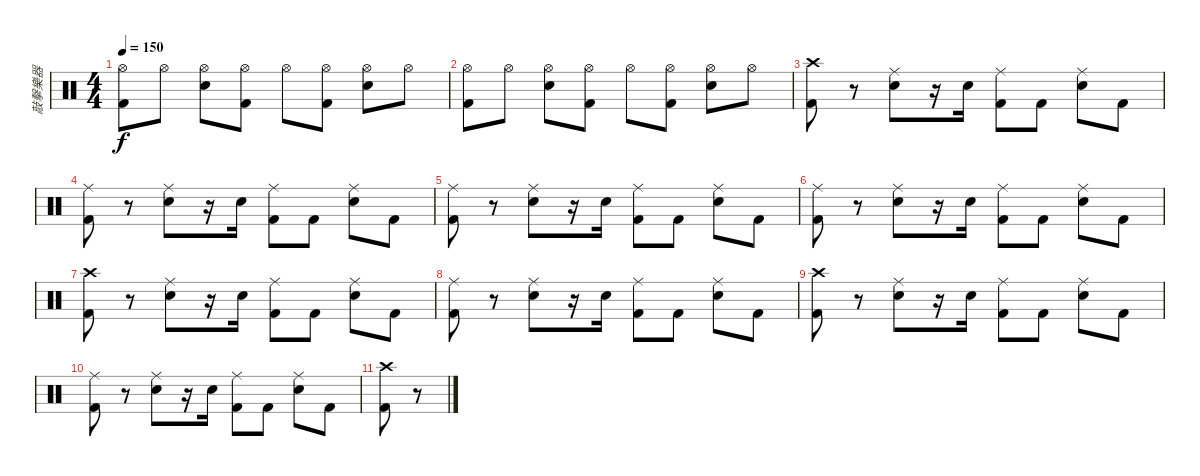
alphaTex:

\track ("敲擊樂器" "敲擊樂器") {instrument percussion}
\staff {score}
\articulation defaults
\ts (4 4)
\tempo 150
\clef neutral
\ks c
("Hi-Hat (open)" "Kick (hit) 2").8{dy f} "Hi-Hat (open)".8 ("Hi-Hat (open)" "Electric Snare (hit)").8 ("Hi-Hat (open)" "Kick (hit) 2").8 "Hi-Hat (open)".8 ("Hi-Hat (open)" "Kick (hit) 2").8 ("Hi-Hat (open)" "Electric Snare (hit)").8 "Hi-Hat (open)".8 |
("Hi-Hat (open)" "Kick (hit) 2").8 "Hi-Hat (open)".8 ("Hi-Hat (open)" "Electric Snare (hit)").8 ("Hi-Hat (open)" "Kick (hit) 2").8 "Hi-Hat (open)".8 ("Hi-Hat (open)" "Kick (hit) 2").8 ("Hi-Hat (open)" "Electric Snare (hit)").8 "Hi-Hat (open)".8 |
("Crash high (hit)" "Kick (hit) 2").8 r.8 ("Ride (middle)" "Electric Snare (hit)").8 r.16 "Electric Snare (hit)".16 ("Ride (middle)" "Kick (hit) 2").8 "Kick (hit) 2".8 ("Ride (middle)" "Electric Snare (hit)").8 "Kick (hit) 2".8 |
("Ride (middle)" "Kick (hit) 2").8 r.8 ("Ride (middle)" "Electric Snare (hit)").8 r.16 "Electric Snare (hit)".16 ("Ride (middle)" "Kick (hit) 2").8 "Kick (hit) 2".8 ("Ride (middle)" "Electric Snare (hit)").8 "Kick (hit) 2".8 |
("Ride (middle)" "Kick (hit) 2").8 r.8 ("Ride (middle)" "Electric Snare (hit)").8 r.16 "Electric Snare (hit)".16 ("Ride (middle)" "Kick (hit) 2").8 "Kick (hit) 2".8 ("Ride (middle)" "Electric Snare (hit)").8 "Kick (hit) 2".8 |
("Ride (middle)" "Kick (hit) 2").8 r.8 ("Ride (middle)" "Electric Snare (hit)").8 r.16 "Electric Snare (hit)".16 ("Ride (middle)" "Kick (hit) 2").8 "Kick (hit) 2".8 ("Ride (middle)" "Electric Snare (hit)").8 "Kick (hit) 2".8 |
("Crash high (hit)" "Kick (hit) 2").8 r.8 ("Ride (middle)" "Electric Snare (hit)").8 r.16 "Electric Snare (hit)".16 ("Ride (middle)" "Kick (hit) 2").8 "Kick (hit) 2".8 ("Ride (middle)" "Electric Snare (hit)").8 "Kick (hit) 2".8 |
("Ride (middle)" "Kick (hit) 2").8 r.8 ("Ride (middle)" "Electric Snare (hit)").8 r.16 "Electric Snare (hit)".16 ("Ride (middle)" "Kick (hit) 2").8 "Kick (hit) 2".8 ("Ride (middle)" "Electric Snare (hit)").8 "Kick (hit) 2".8 |
("Crash high (hit)" "Kick (hit) 2").8 r.8 ("Ride (middle)" "Electric Snare (hit)").8 r.16 "Electric Snare (hit)".16 ("Ride (middle)" "Kick (hit) 2").8 "Kick (hit) 2".8 ("Ride (middle)" "Electric Snare (hit)").8 "Kick (hit) 2".8 |
("Ride (middle)" "Kick (hit) 2").8 r.8 ("Ride (middle)" "Electric Snare (hit)").8 r.16 "Electric Snare (hit)".16 ("Ride (middle)" "Kick (hit) 2").8 "Kick (hit) 2".8 ("Ride (middle)" "Electric Snare (hit)").8 "Kick (hit) 2".8 |
("Crash high (hit)" "Kick (hit) 2").8 r.8
